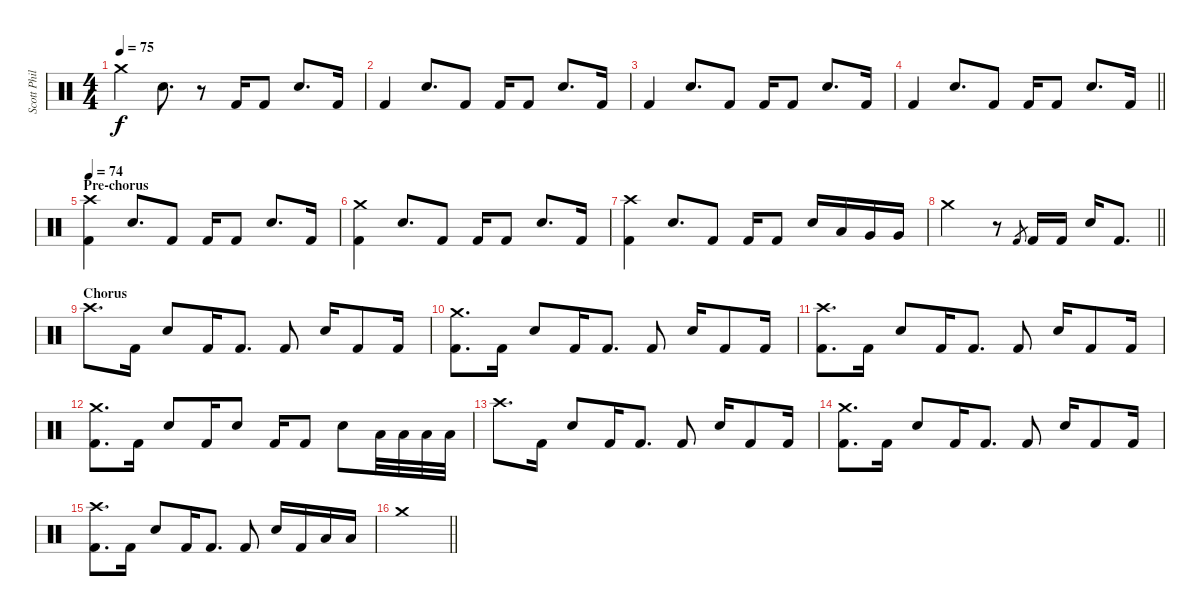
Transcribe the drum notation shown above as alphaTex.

\track ("Scott Phillips (Drums)" "Scott Phil") {instrument percussion}
\staff {score}
\articulation defaults
\ts (4 4)
\tempo 75
\clef neutral
\ks c "Crash medium (hit)".4{dy f} "Electric Snare (hit)".8{d}
r.8 "Kick (hit) 2".16 "Kick (hit) 2".8 "Electric Snare (hit)".8{d} "Kick (hit) 2".16 |
"Kick (hit) 2".4 "Electric Snare (hit)".8{d} "Kick (hit) 2".8 "Kick (hit) 2".16 "Kick (hit) 2".8 "Electric Snare (hit)".8{d} "Kick (hit) 2".16 |
"Kick (hit) 2".4 "Electric Snare (hit)".8{d} "Kick (hit) 2".8 "Kick (hit) 2".16 "Kick (hit) 2".8 "Electric Snare (hit)".8{d} "Kick (hit) 2".16 |
\barLineRight lightlight "Kick (hit) 2".4 "Electric Snare (hit)".8{d} "Kick (hit) 2".8 "Kick (hit) 2".16 "Kick (hit) 2".8 "Electric Snare (hit)".8{d} "Kick (hit) 2".16
|
\section ("" "Pre-chorus")
\tempo 74
("Crash high (hit)" "Kick (hit) 2").4 "Electric Snare (hit)".8{d} "Kick (hit) 2".8 "Kick (hit) 2".16 "Kick (hit) 2".8 "Electric Snare (hit)".8{d} "Kick (hit) 2".16 |
("Crash medium (hit)" "Kick (hit) 2").4 "Electric Snare (hit)".8{d} "Kick (hit) 2".8 "Kick (hit) 2".16 "Kick (hit) 2".8 "Electric Snare (hit)".8{d} "Kick (hit) 2".16 |
("Crash high (hit)" "Kick (hit) 2").4 "Electric Snare (hit)".8{d} "Kick (hit) 2".8 "Kick (hit) 2".16 "Kick (hit) 2".8 "Electric Snare (hit)".16 "Low Floor Tom (hit)".16 "Very Low Tom (hit)".16 "Very Low Tom (hit)".16 |
\barLineRight lightlight "Crash medium (hit)".2
r.8 "Kick (hit) 2".8{gr} "Kick (hit) 2".16 "Kick (hit) 2".16 "Electric Snare (hit)".16 "Kick (hit) 2".8{d} |
\section ("" "Chorus")
"Crash high (hit)".8{d} "Kick (hit) 2".16 "Electric Snare (hit)".8 "Kick (hit) 2".16 "Kick (hit) 2".8{d} "Kick (hit) 2".8 "Electric Snare (hit)".16 "Kick (hit) 2".8 "Kick (hit) 2".16 |
("Crash medium (hit)" "Kick (hit) 2").8{d} "Kick (hit) 2".16 "Electric Snare (hit)".8 "Kick (hit) 2".16 "Kick (hit) 2".8{d} "Kick (hit) 2".8 "Electric Snare (hit)".16 "Kick (hit) 2".8 "Kick (hit) 2".16 |
("Crash high (hit)" "Kick (hit) 2").8{d} "Kick (hit) 2".16 "Electric Snare (hit)".8 "Kick (hit) 2".16 "Kick (hit) 2".8{d} "Kick (hit) 2".8 "Electric Snare (hit)".16 "Kick (hit) 2".8 "Kick (hit) 2".16 |
("Crash medium (hit)" "Kick (hit) 2").8{d} "Kick (hit) 2".16 "Electric Snare (hit)".8 "Kick (hit) 2".16 "Electric Snare (hit)".8 "Kick (hit) 2".16 "Kick (hit) 2".8 "Electric Snare (hit)".8 "Low Tom (hit)".32 "Low Tom (hit)".32 "Low Tom (hit)".32 "Low Tom (hit)".32 |
"Crash high (hit)".8{d} "Kick (hit) 2".16 "Electric Snare (hit)".8 "Kick (hit) 2".16 "Kick (hit) 2".8{d} "Kick (hit) 2".8 "Electric Snare (hit)".16 "Kick (hit) 2".8 "Kick (hit) 2".16 |
("Crash medium (hit)" "Kick (hit) 2").8{d} "Kick (hit) 2".16 "Electric Snare (hit)".8 "Kick (hit) 2".16 "Kick (hit) 2".8{d} "Kick (hit) 2".8 "Electric Snare (hit)".16 "Kick (hit) 2".8 "Kick (hit) 2".16 |
("Crash high (hit)" "Kick (hit) 2").8{d} "Kick (hit) 2".16 "Electric Snare (hit)".8 "Kick (hit) 2".16 "Kick (hit) 2".8{d} "Kick (hit) 2".8 "Electric Snare (hit)".16 "Kick (hit) 2".16 "Low Tom (hit)".16 "Low Tom (hit)".16 |
\barLineRight lightlight "Crash medium (hit)".1
